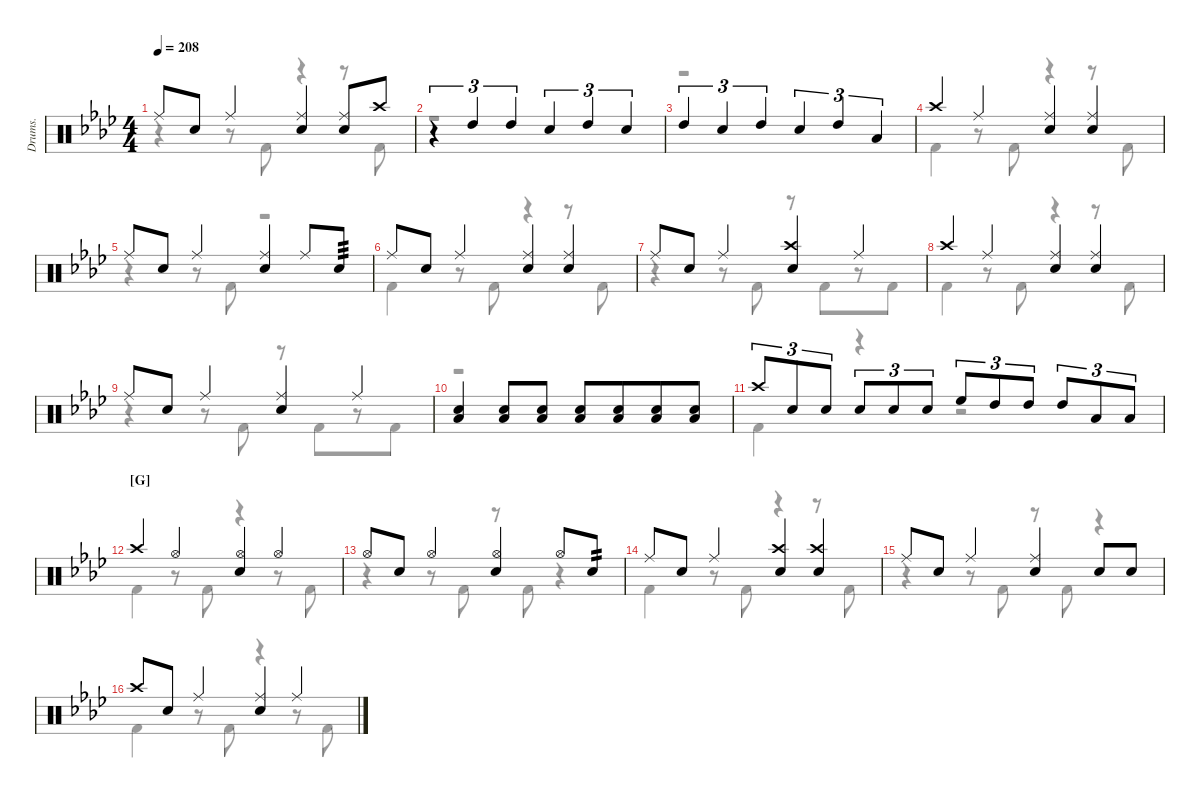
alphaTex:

\defaultSystemsLayout 4
\hideDynamics
\otherSystemsTrackNameOrientation horizontal
\track ("Drumkit" "Drums.") {defaultSystemsLayout 4 instrument percussion}
\staff {score}
\articulation defaults
\voice
\ts (4 4)
\tempo 208
\clef neutral
\ks fminor "Ride (middle)"{acc forcenatural}.8{dy mf} "Snare (hit) 2"{acc forcenatural}.8 "Ride (middle)"{acc forcenatural}.4
("Snare (hit) 2"{acc forcenatural} "Ride (middle)"{acc forcenatural}).4 ("Snare (hit) 2"{acc forcenatural} "Ride (middle)"{acc forcenatural}).8 "Crash high (hit)"{acc forcenatural}.8 |
r.4{tu (3 2)} "High Tom (hit)"{acc forcenatural}.4{tu (3 2)} "High Tom (hit)"{acc forcenatural}.4{tu (3 2)} "Snare (hit) 2"{acc forcenatural}.4{tu (3 2)} "High Tom (hit)"{acc forcenatural}.4{tu (3 2)} "Snare (hit) 2"{acc forcenatural}.4{tu (3 2)} |
"High Tom (hit)"{acc forcenatural}.4{tu (3 2)} "Snare (hit) 2"{acc forcenatural}.4{tu (3 2)} "High Tom (hit)"{acc forcenatural}.4{tu (3 2)} "Snare (hit) 2"{acc forcenatural}.4{tu (3 2)} "High Tom (hit)"{acc forcenatural}.4{tu (3 2)} "Low Tom (hit)"{acc forcenatural}.4{tu (3 2)} |
"Crash high (hit)"{acc forcenatural}.4 "Ride (middle)"{acc forcenatural}.4 ("Ride (middle)"{acc forcenatural} "Snare (hit) 2"{acc forcenatural}).4 ("Ride (middle)"{acc forcenatural} "Snare (hit) 2"{acc forcenatural}).4 |
"Ride (middle)"{acc forcenatural}.8 "Snare (hit) 2"{acc forcenatural}.8 "Ride (middle)"{acc forcenatural}.4 ("Snare (hit) 2"{acc forcenatural} "Ride (middle)"{acc forcenatural}).4 "Ride (middle)"{acc forcenatural}.8 "Snare (hit) 2"{acc forcenatural}.8{tp 3} |
"Ride (middle)"{acc forcenatural}.8 "Snare (hit) 2"{acc forcenatural}.8 "Ride (middle)"{acc forcenatural}.4 ("Snare (hit) 2"{acc forcenatural} "Ride (middle)"{acc forcenatural}).4 ("Snare (hit) 2"{acc forcenatural} "Ride (middle)"{acc forcenatural}).4 |
"Ride (middle)"{acc forcenatural}.8 "Snare (hit) 2"{acc forcenatural}.8 "Ride (middle)"{acc forcenatural}.4 ("Crash high (hit)"{acc forcenatural} "Snare (hit) 2"{acc forcenatural}).4 "Ride (middle)"{acc forcenatural}.4 |
"Crash high (hit)"{acc forcenatural}.4 "Ride (middle)"{acc forcenatural}.4 ("Ride (middle)"{acc forcenatural} "Snare (hit) 2"{acc forcenatural}).4 ("Ride (middle)"{acc forcenatural} "Snare (hit) 2"{acc forcenatural}).4 |
"Ride (middle)"{acc forcenatural}.8 "Snare (hit) 2"{acc forcenatural}.8 "Ride (middle)"{acc forcenatural}.4 ("Snare (hit) 2"{acc forcenatural} "Ride (middle)"{acc forcenatural}).4 "Ride (middle)"{acc forcenatural}.4 |
("Snare (hit) 2"{acc forcenatural} "Low Tom (hit)"{acc forcenatural}).4 ("Snare (hit) 2"{acc forcenatural} "Low Tom (hit)"{acc forcenatural}).8 ("Snare (hit) 2"{acc forcenatural} "Low Tom (hit)"{acc forcenatural}).8 ("Snare (hit) 2"{acc forcenatural} "Low Tom (hit)"{acc forcenatural}).8{beam merge} ("Snare (hit) 2"{acc forcenatural} "Low Tom (hit)"{acc forcenatural}).8{beam merge} ("Snare (hit) 2"{acc forcenatural} "Low Tom (hit)"{acc forcenatural}).8{beam merge} ("Snare (hit) 2"{acc forcenatural} "Low Tom (hit)"{acc forcenatural}).8 |
"Crash high (hit)"{acc forcenatural}.8{tu (3 2)} "Snare (hit) 2"{acc forcenatural}.8{tu (3 2)} "Snare (hit) 2"{acc forcenatural}.8{tu (3 2)} "Snare (hit) 2"{acc forcenatural}.8{tu (3 2)} "Snare (hit) 2"{acc forcenatural}.8{tu (3 2)} "Snare (hit) 2"{acc forcenatural}.8{tu (3 2)} "High Floor Tom (hit)"{acc forcenatural}.8{tu (3 2)} "High Tom (hit)"{acc forcenatural}.8{tu (3 2)} "High Tom (hit)"{acc forcenatural}.8{tu (3 2)} "High Tom (hit)"{acc forcenatural}.8{tu (3 2)} "Low Tom (hit)"{acc forcenatural}.8{tu (3 2)} "Low Tom (hit)"{acc forcenatural}.8{tu (3 2)} |
\section ("G" "")
"Crash high (hit)"{acc forcenatural}.4 "Hi-Hat (open)"{acc forcenatural}.4 ("Hi-Hat (open)"{acc forcenatural} "Snare (hit) 2"{acc forcenatural}).4 "Hi-Hat (open)"{acc forcenatural}.4 |
"Hi-Hat (open)"{acc forcenatural}.8 "Snare (hit) 2"{acc forcenatural}.8 "Hi-Hat (open)"{acc forcenatural}.4 ("Snare (hit) 2"{acc forcenatural} "Hi-Hat (open)"{acc forcenatural}).4 "Hi-Hat (open)"{acc forcenatural}.8 "Snare (hit) 2"{acc forcenatural}.8{tp 2} |
"Ride (middle)"{acc forcenatural}.8 "Snare (hit) 2"{acc forcenatural}.8 "Ride (middle)"{acc forcenatural}.4 ("Snare (hit) 2"{acc forcenatural} "Crash high (hit)"{acc forcenatural}).4 ("Snare (hit) 2"{acc forcenatural} "Crash high (hit)"{acc forcenatural}).4 |
"Ride (middle)"{acc forcenatural}.8 "Snare (hit) 2"{acc forcenatural}.8 "Ride (middle)"{acc forcenatural}.4 ("Ride (middle)"{acc forcenatural} "Snare (hit) 2"{acc forcenatural}).4 "Snare (hit) 2"{acc forcenatural}.8 "Snare (hit) 2"{acc forcenatural}.8 |
"Crash high (hit)"{acc forcenatural}.8 "Snare (hit) 2"{acc forcenatural}.8 "Ride (middle)"{acc forcenatural}.4 ("Ride (middle)"{acc forcenatural} "Snare (hit) 2"{acc forcenatural}).4 "Ride (middle)"{acc forcenatural}.4
\voice
\clef neutral
\ottava regular
\simile none
\ks fminor
r.4{dy mf} r.8 "Kick (hit) 2"{acc forcenatural}.8 r.4 r.8 "Kick (hit) 2"{acc forcenatural}.8 |
r.1 |
r.1 |
"Kick (hit) 2"{acc forcenatural}.4 r.8 "Kick (hit) 2"{acc forcenatural}.8 r.4 r.8 "Kick (hit) 2"{acc forcenatural}.8 |
r.4 r.8 "Kick (hit) 2"{acc forcenatural}.8 r.2 |
"Kick (hit) 2"{acc forcenatural}.4 r.8 "Kick (hit) 2"{acc forcenatural}.8 r.4 r.8 "Kick (hit) 2"{acc forcenatural}.8 |
r.4 r.8 "Kick (hit) 2"{acc forcenatural}.8 r.8 "Kick (hit) 2"{acc forcenatural}.8{beam merge} r.8{beam merge} "Kick (hit) 2"{acc forcenatural}.8 |
"Kick (hit) 2"{acc forcenatural}.4 r.8 "Kick (hit) 2"{acc forcenatural}.8 r.4 r.8 "Kick (hit) 2"{acc forcenatural}.8 |
r.4 r.8 "Kick (hit) 2"{acc forcenatural}.8 r.8 "Kick (hit) 2"{acc forcenatural}.8{beam merge} r.8{beam merge} "Kick (hit) 2"{acc forcenatural}.8 |
r.1 |
"Kick (hit) 2"{acc forcenatural}.4 r.4 r.2 |
"Kick (hit) 2"{acc forcenatural}.4 r.8 "Kick (hit) 2"{acc forcenatural}.8 r.4 r.8 "Kick (hit) 2"{acc forcenatural}.8 |
r.4 r.8 "Kick (hit) 2"{acc forcenatural}.8 r.8 "Kick (hit) 2"{acc forcenatural}.8 r.4 |
"Kick (hit) 2"{acc forcenatural}.4 r.8 "Kick (hit) 2"{acc forcenatural}.8 r.4 r.8 "Kick (hit) 2"{acc forcenatural}.8 |
r.4 r.8 "Kick (hit) 2"{acc forcenatural}.8 r.8 "Kick (hit) 2"{acc forcenatural}.8 r.4 |
"Kick (hit) 2"{acc forcenatural}.4 r.8 "Kick (hit) 2"{acc forcenatural}.8 r.4 r.8 "Kick (hit) 2"{acc forcenatural}.8
